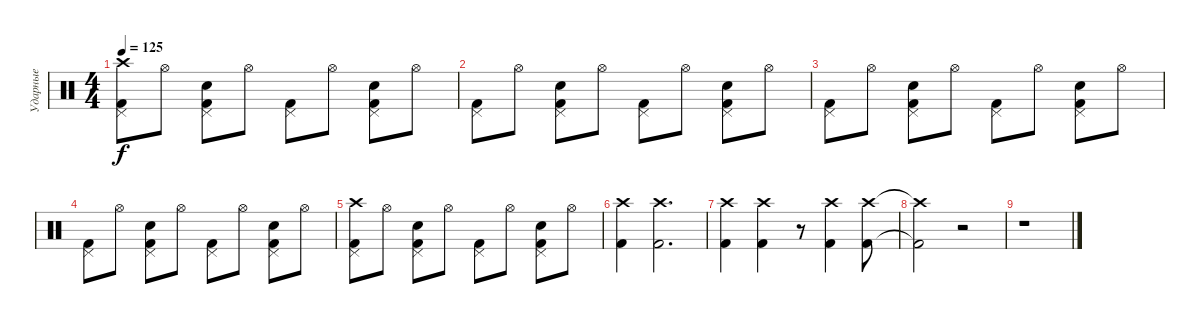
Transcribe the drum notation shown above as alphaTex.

\track ("Ударные" "Ударные") {instrument percussion}
\staff {score}
\articulation defaults
\ts (4 4)
\tempo 125
\clef neutral
\ks c
("Kick (hit) 2" "Pedal Hi-Hat (hit)" "Crash high (hit)").8{dy f} "Hi-Hat (open)".8 ("Kick (hit) 2" "Pedal Hi-Hat (hit)" "Hand Clap (hit)").8 "Hi-Hat (open)".8 ("Kick (hit) 2" "Pedal Hi-Hat (hit)").8 "Hi-Hat (open)".8 ("Kick (hit) 2" "Pedal Hi-Hat (hit)" "Hand Clap (hit)").8 "Hi-Hat (open)".8 |
("Kick (hit) 2" "Pedal Hi-Hat (hit)").8 "Hi-Hat (open)".8 ("Kick (hit) 2" "Pedal Hi-Hat (hit)" "Hand Clap (hit)").8 "Hi-Hat (open)".8 ("Kick (hit) 2" "Pedal Hi-Hat (hit)").8 "Hi-Hat (open)".8 ("Kick (hit) 2" "Pedal Hi-Hat (hit)" "Hand Clap (hit)").8 "Hi-Hat (open)".8 |
("Kick (hit) 2" "Pedal Hi-Hat (hit)").8 "Hi-Hat (open)".8 ("Kick (hit) 2" "Pedal Hi-Hat (hit)" "Hand Clap (hit)").8 "Hi-Hat (open)".8 ("Kick (hit) 2" "Pedal Hi-Hat (hit)").8 "Hi-Hat (open)".8 ("Kick (hit) 2" "Pedal Hi-Hat (hit)" "Hand Clap (hit)").8 "Hi-Hat (open)".8 |
("Kick (hit) 2" "Pedal Hi-Hat (hit)").8 "Hi-Hat (open)".8 ("Kick (hit) 2" "Pedal Hi-Hat (hit)" "Hand Clap (hit)").8 "Hi-Hat (open)".8 ("Kick (hit) 2" "Pedal Hi-Hat (hit)").8 "Hi-Hat (open)".8 ("Kick (hit) 2" "Pedal Hi-Hat (hit)" "Hand Clap (hit)").8 "Hi-Hat (open)".8 |
("Kick (hit) 2" "Pedal Hi-Hat (hit)" "Crash high (hit)").8 "Hi-Hat (open)".8 ("Kick (hit) 2" "Pedal Hi-Hat (hit)" "Hand Clap (hit)").8 "Hi-Hat (open)".8 ("Kick (hit) 2" "Pedal Hi-Hat (hit)").8 "Hi-Hat (open)".8 ("Kick (hit) 2" "Pedal Hi-Hat (hit)" "Hand Clap (hit)").8 "Hi-Hat (open)".8 |
("Kick (hit) 2" "Crash high (hit)").4 ("Kick (hit) 2" "Crash high (hit)").2{d} |
("Kick (hit) 2" "Crash high (hit)").4 ("Kick (hit) 2" "Crash high (hit)").4 r.8 ("Kick (hit) 2" "Crash high (hit)").4 ("Kick (hit) 2" "Crash high (hit)").8 |
("Kick (hit) 2"{t} "Crash high (hit)"{t}).2 r.2 |
r.1
